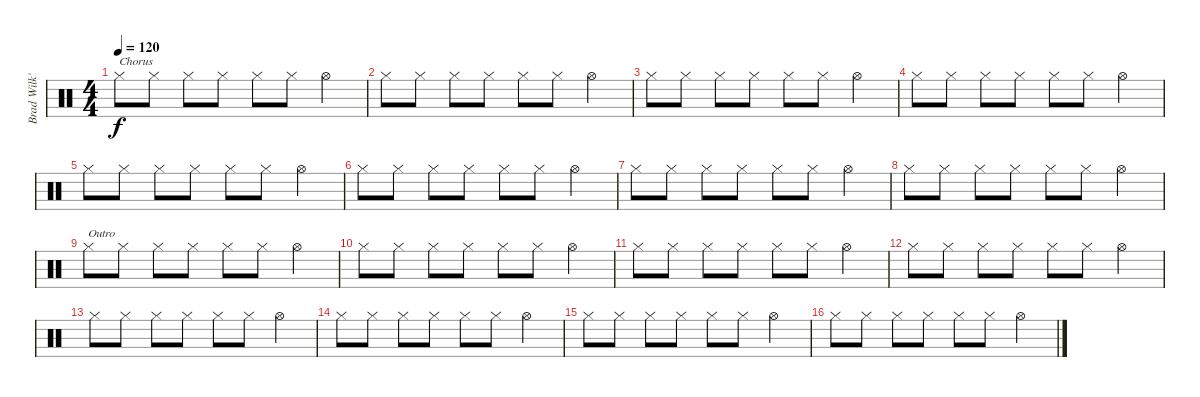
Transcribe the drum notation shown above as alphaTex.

\track ("Brad Wilk's Hi Hat" "Brad Wilk'") {instrument percussion}
\staff {score}
\articulation defaults
\ts (4 4)
\tempo 120
\clef neutral
\ks c "Hi-Hat (closed)".8{txt "Chorus" dy f} "Hi-Hat (closed)".8 "Hi-Hat (closed)".8 "Hi-Hat (closed)".8 "Hi-Hat (closed)".8 "Hi-Hat (closed)".8 "Hi-Hat (open)".4
|
"Hi-Hat (closed)".8 "Hi-Hat (closed)".8 "Hi-Hat (closed)".8 "Hi-Hat (closed)".8 "Hi-Hat (closed)".8 "Hi-Hat (closed)".8 "Hi-Hat (open)".4 |
"Hi-Hat (closed)".8 "Hi-Hat (closed)".8 "Hi-Hat (closed)".8 "Hi-Hat (closed)".8 "Hi-Hat (closed)".8 "Hi-Hat (closed)".8 "Hi-Hat (open)".4 |
"Hi-Hat (closed)".8 "Hi-Hat (closed)".8 "Hi-Hat (closed)".8 "Hi-Hat (closed)".8 "Hi-Hat (closed)".8 "Hi-Hat (closed)".8 "Hi-Hat (open)".4 |
"Hi-Hat (closed)".8 "Hi-Hat (closed)".8 "Hi-Hat (closed)".8 "Hi-Hat (closed)".8 "Hi-Hat (closed)".8 "Hi-Hat (closed)".8 "Hi-Hat (open)".4 |
"Hi-Hat (closed)".8 "Hi-Hat (closed)".8 "Hi-Hat (closed)".8 "Hi-Hat (closed)".8 "Hi-Hat (closed)".8 "Hi-Hat (closed)".8 "Hi-Hat (open)".4 |
"Hi-Hat (closed)".8 "Hi-Hat (closed)".8 "Hi-Hat (closed)".8 "Hi-Hat (closed)".8 "Hi-Hat (closed)".8 "Hi-Hat (closed)".8 "Hi-Hat (open)".4 |
"Hi-Hat (closed)".8 "Hi-Hat (closed)".8 "Hi-Hat (closed)".8 "Hi-Hat (closed)".8 "Hi-Hat (closed)".8 "Hi-Hat (closed)".8 "Hi-Hat (open)".4 |
"Hi-Hat (closed)".8{txt "Outro"} "Hi-Hat (closed)".8 "Hi-Hat (closed)".8 "Hi-Hat (closed)".8 "Hi-Hat (closed)".8 "Hi-Hat (closed)".8 "Hi-Hat (open)".4 |
"Hi-Hat (closed)".8 "Hi-Hat (closed)".8 "Hi-Hat (closed)".8 "Hi-Hat (closed)".8 "Hi-Hat (closed)".8 "Hi-Hat (closed)".8 "Hi-Hat (open)".4 |
"Hi-Hat (closed)".8 "Hi-Hat (closed)".8 "Hi-Hat (closed)".8 "Hi-Hat (closed)".8 "Hi-Hat (closed)".8 "Hi-Hat (closed)".8 "Hi-Hat (open)".4 |
"Hi-Hat (closed)".8 "Hi-Hat (closed)".8 "Hi-Hat (closed)".8 "Hi-Hat (closed)".8 "Hi-Hat (closed)".8 "Hi-Hat (closed)".8 "Hi-Hat (open)".4 |
"Hi-Hat (closed)".8 "Hi-Hat (closed)".8 "Hi-Hat (closed)".8 "Hi-Hat (closed)".8 "Hi-Hat (closed)".8 "Hi-Hat (closed)".8 "Hi-Hat (open)".4 |
"Hi-Hat (closed)".8 "Hi-Hat (closed)".8 "Hi-Hat (closed)".8 "Hi-Hat (closed)".8 "Hi-Hat (closed)".8 "Hi-Hat (closed)".8 "Hi-Hat (open)".4 |
"Hi-Hat (closed)".8 "Hi-Hat (closed)".8 "Hi-Hat (closed)".8 "Hi-Hat (closed)".8 "Hi-Hat (closed)".8 "Hi-Hat (closed)".8 "Hi-Hat (open)".4 |
"Hi-Hat (closed)".8 "Hi-Hat (closed)".8 "Hi-Hat (closed)".8 "Hi-Hat (closed)".8 "Hi-Hat (closed)".8 "Hi-Hat (closed)".8 "Hi-Hat (open)".4
